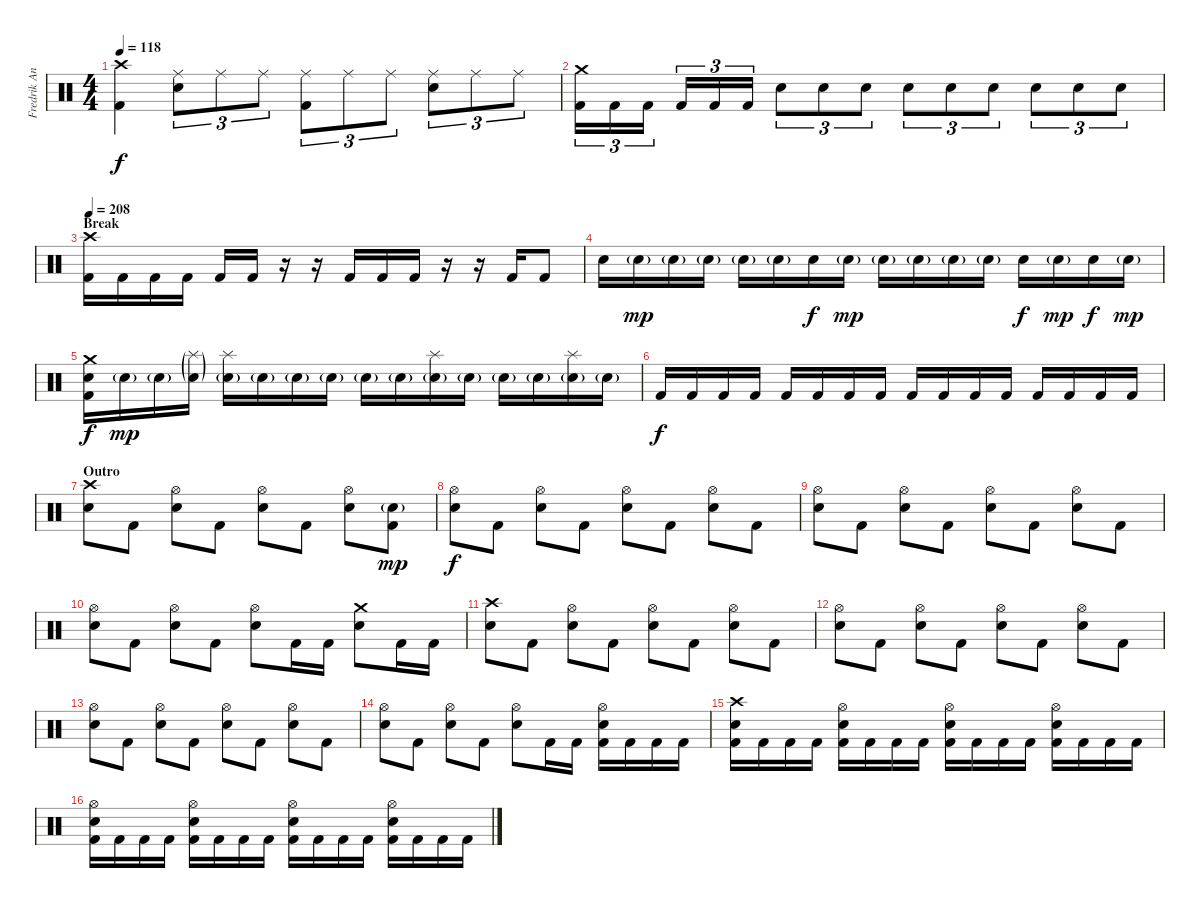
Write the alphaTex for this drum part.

\track ("Fredrik Andersson" "Fredrik An") {instrument percussion}
\staff {score}
\articulation defaults
\ts (4 4)
\tempo 118
\clef neutral
\ks c
("Crash high (hit)" "Kick (hit) 2").4{dy f} ("Ride (middle)" "Electric Snare (hit)").8{tu (3 2)} "Ride (middle)".8{tu (3 2)} "Ride (middle)".8{tu (3 2)} ("Ride (middle)" "Kick (hit) 2").8{tu (3 2)} "Ride (middle)".8{tu (3 2)} "Ride (middle)".8{tu (3 2)} ("Ride (middle)" "Electric Snare (hit)").8{tu (3 2)} "Ride (middle)".8{tu (3 2)} "Ride (middle)".8{tu (3 2)} |
("Crash medium (hit)" "Kick (hit) 2").16{tu (3 2)} "Kick (hit) 2".16{tu (3 2)} "Kick (hit) 2".16{tu (3 2)} "Kick (hit) 2".16{tu (3 2)} "Kick (hit) 2".16{tu (3 2)} "Kick (hit) 2".16{tu (3 2)} "Electric Snare (hit)".8{tu (3 2)} "Electric Snare (hit)".8{tu (3 2)} "Electric Snare (hit)".8{tu (3 2)} "Electric Snare (hit)".8{tu (3 2)} "Electric Snare (hit)".8{tu (3 2)} "Electric Snare (hit)".8{tu (3 2)} "Electric Snare (hit)".8{tu (3 2)} "Electric Snare (hit)".8{tu (3 2)} "Electric Snare (hit)".8{tu (3 2)} |
\section ("" "Break")
\tempo 208
("Crash high (hit)" "Kick (hit) 2").16 "Kick (hit) 2".16 "Kick (hit) 2".16 "Kick (hit) 2".16 "Kick (hit) 2".16 "Kick (hit) 2".16 r.16 r.16 "Kick (hit) 2".16 "Kick (hit) 2".16 "Kick (hit) 2".16 r.16 r.16 "Kick (hit) 2".16 "Kick (hit) 2".8 |
"Electric Snare (hit)".16 "Electric Snare (hit)"{g}.16{dy mp} "Electric Snare (hit)"{g}.16 "Electric Snare (hit)"{g}.16 "Electric Snare (hit)"{g}.16 "Electric Snare (hit)"{g}.16 "Electric Snare (hit)".16{dy f} "Electric Snare (hit)"{g}.16{dy mp} "Electric Snare (hit)"{g}.16 "Electric Snare (hit)"{g}.16 "Electric Snare (hit)"{g}.16 "Electric Snare (hit)"{g}.16 "Electric Snare (hit)".16{dy f} "Electric Snare (hit)"{g}.16{dy mp} "Electric Snare (hit)".16{dy f} "Electric Snare (hit)"{g}.16{dy mp} |
("Crash medium (hit)" "Electric Snare (hit)" "Kick (hit) 2").16{dy f} "Electric Snare (hit)"{g}.16{dy mp} "Electric Snare (hit)"{g}.16 ("Splash (hit)"{g} "Electric Snare (hit)"{g}).16 ("Splash (hit)" "Electric Snare (hit)"{g}).16 "Electric Snare (hit)"{g}.16 "Electric Snare (hit)"{g}.16 "Electric Snare (hit)"{g}.16 "Electric Snare (hit)"{g}.16 "Electric Snare (hit)"{g}.16 ("Splash (hit)" "Electric Snare (hit)"{g}).16 "Electric Snare (hit)"{g}.16 "Electric Snare (hit)"{g}.16 "Electric Snare (hit)"{g}.16 ("Splash (hit)" "Electric Snare (hit)"{g}).16 "Electric Snare (hit)"{g}.16 |
"Kick (hit) 2".16{dy f} "Kick (hit) 2".16 "Kick (hit) 2".16 "Kick (hit) 2".16 "Kick (hit) 2".16 "Kick (hit) 2".16 "Kick (hit) 2".16 "Kick (hit) 2".16 "Kick (hit) 2".16 "Kick (hit) 2".16 "Kick (hit) 2".16 "Kick (hit) 2".16 "Kick (hit) 2".16 "Kick (hit) 2".16 "Kick (hit) 2".16 "Kick (hit) 2".16 |
\section ("" "Outro")
("Crash high (hit)" "Electric Snare (hit)").8 "Kick (hit) 2".8 ("Hi-Hat (open)" "Electric Snare (hit)").8 "Kick (hit) 2".8 ("Hi-Hat (open)" "Electric Snare (hit)").8 "Kick (hit) 2".8 ("Hi-Hat (open)" "Electric Snare (hit)").8 ("Electric Snare (hit)"{g} "Kick (hit) 2").8{dy mp} |
("Hi-Hat (open)" "Electric Snare (hit)").8{dy f} "Kick (hit) 2".8 ("Hi-Hat (open)" "Electric Snare (hit)").8 "Kick (hit) 2".8 ("Hi-Hat (open)" "Electric Snare (hit)").8 "Kick (hit) 2".8 ("Hi-Hat (open)" "Electric Snare (hit)").8 "Kick (hit) 2".8 |
("Hi-Hat (open)" "Electric Snare (hit)").8 "Kick (hit) 2".8 ("Hi-Hat (open)" "Electric Snare (hit)").8 "Kick (hit) 2".8 ("Hi-Hat (open)" "Electric Snare (hit)").8 "Kick (hit) 2".8 ("Hi-Hat (open)" "Electric Snare (hit)").8 "Kick (hit) 2".8 |
("Hi-Hat (open)" "Electric Snare (hit)").8 "Kick (hit) 2".8 ("Hi-Hat (open)" "Electric Snare (hit)").8 "Kick (hit) 2".8 ("Hi-Hat (open)" "Electric Snare (hit)").8 "Kick (hit) 2".16 "Kick (hit) 2".16 ("Crash medium (hit)" "Electric Snare (hit)").8 "Kick (hit) 2".16 "Kick (hit) 2".16 |
("Crash high (hit)" "Electric Snare (hit)").8 "Kick (hit) 2".8 ("Hi-Hat (open)" "Electric Snare (hit)").8 "Kick (hit) 2".8 ("Hi-Hat (open)" "Electric Snare (hit)").8 "Kick (hit) 2".8 ("Hi-Hat (open)" "Electric Snare (hit)").8 "Kick (hit) 2".8 |
("Hi-Hat (open)" "Electric Snare (hit)").8 "Kick (hit) 2".8 ("Hi-Hat (open)" "Electric Snare (hit)").8 "Kick (hit) 2".8 ("Hi-Hat (open)" "Electric Snare (hit)").8 "Kick (hit) 2".8 ("Hi-Hat (open)" "Electric Snare (hit)").8 "Kick (hit) 2".8 |
("Hi-Hat (open)" "Electric Snare (hit)").8 "Kick (hit) 2".8 ("Hi-Hat (open)" "Electric Snare (hit)").8 "Kick (hit) 2".8 ("Hi-Hat (open)" "Electric Snare (hit)").8 "Kick (hit) 2".8 ("Hi-Hat (open)" "Electric Snare (hit)").8 "Kick (hit) 2".8 |
("Hi-Hat (open)" "Electric Snare (hit)").8 "Kick (hit) 2".8 ("Hi-Hat (open)" "Electric Snare (hit)").8 "Kick (hit) 2".8 ("Hi-Hat (open)" "Electric Snare (hit)").8 "Kick (hit) 2".16 "Kick (hit) 2".16 ("Hi-Hat (open)" "Electric Snare (hit)" "Kick (hit) 2").16 "Kick (hit) 2".16 "Kick (hit) 2".16 "Kick (hit) 2".16 |
("Crash high (hit)" "Electric Snare (hit)" "Kick (hit) 2").16 "Kick (hit) 2".16 "Kick (hit) 2".16 "Kick (hit) 2".16 ("Hi-Hat (open)" "Electric Snare (hit)" "Kick (hit) 2").16 "Kick (hit) 2".16 "Kick (hit) 2".16 "Kick (hit) 2".16 ("Hi-Hat (open)" "Electric Snare (hit)" "Kick (hit) 2").16 "Kick (hit) 2".16 "Kick (hit) 2".16 "Kick (hit) 2".16 ("Hi-Hat (open)" "Electric Snare (hit)" "Kick (hit) 2").16 "Kick (hit) 2".16 "Kick (hit) 2".16 "Kick (hit) 2".16 |
("Hi-Hat (open)" "Electric Snare (hit)" "Kick (hit) 2").16 "Kick (hit) 2".16 "Kick (hit) 2".16 "Kick (hit) 2".16 ("Hi-Hat (open)" "Electric Snare (hit)" "Kick (hit) 2").16 "Kick (hit) 2".16 "Kick (hit) 2".16 "Kick (hit) 2".16 ("Hi-Hat (open)" "Electric Snare (hit)" "Kick (hit) 2").16 "Kick (hit) 2".16 "Kick (hit) 2".16 "Kick (hit) 2".16 ("Hi-Hat (open)" "Electric Snare (hit)" "Kick (hit) 2").16 "Kick (hit) 2".16 "Kick (hit) 2".16 "Kick (hit) 2".16
